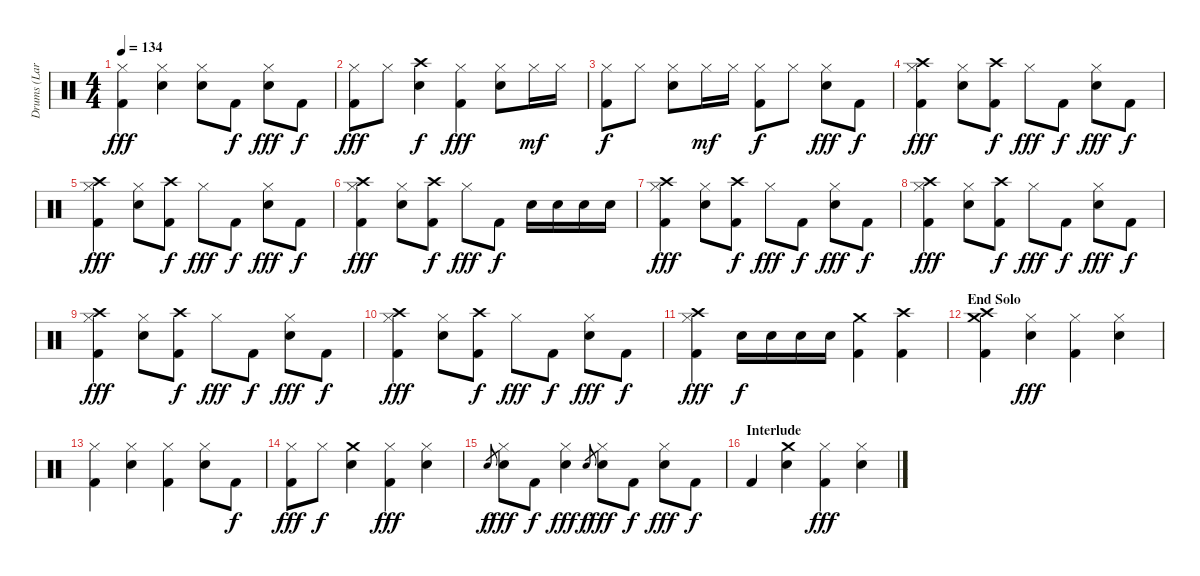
\track ("Drums (Lars)" "Drums (Lar") {instrument percussion}
\staff {score}
\articulation defaults
\ts (4 4)
\tempo 134
\clef neutral
\ks c
("Hi-Hat (closed)" "Kick (hit) 2").4{dy fff} ("Hi-Hat (closed)" "Snare (hit) 2").4 ("Hi-Hat (closed)" "Snare (hit) 2").8 "Kick (hit) 2".8{dy f} ("Hi-Hat (closed)" "Snare (hit) 2").8{dy fff} "Kick (hit) 2".8{dy f} |
("Hi-Hat (closed)" "Kick (hit) 2").8{dy fff} "Hi-Hat (closed)".8 ("Crash high (hit)" "Snare (hit) 2").4{dy f} ("Hi-Hat (closed)" "Kick (hit) 2").4{dy fff} ("Hi-Hat (closed)" "Snare (hit) 2").8 "Hi-Hat (closed)".16{dy mf} "Hi-Hat (closed)".16 |
("Hi-Hat (closed)" "Kick (hit) 2").8{dy f} "Hi-Hat (closed)".8 ("Hi-Hat (closed)" "Snare (hit) 2").8 "Hi-Hat (closed)".16{dy mf} "Hi-Hat (closed)".16 ("Hi-Hat (closed)" "Kick (hit) 2").8{dy f} "Hi-Hat (closed)".8 ("Hi-Hat (closed)" "Snare (hit) 2").8{dy fff} "Kick (hit) 2".8{dy f} |
("Crash high (hit)" "Hi-Hat (closed)" "Kick (hit) 2").4{dy fff} ("Hi-Hat (closed)" "Snare (hit) 2").8 ("Crash high (hit)" "Kick (hit) 2").8{dy f} "Hi-Hat (closed)".8{dy fff} "Kick (hit) 2".8{dy f} ("Hi-Hat (closed)" "Snare (hit) 2").8{dy fff} "Kick (hit) 2".8{dy f} |
("Crash high (hit)" "Hi-Hat (closed)" "Kick (hit) 2").4{dy fff} ("Hi-Hat (closed)" "Snare (hit) 2").8 ("Crash high (hit)" "Kick (hit) 2").8{dy f} "Hi-Hat (closed)".8{dy fff} "Kick (hit) 2".8{dy f} ("Hi-Hat (closed)" "Snare (hit) 2").8{dy fff} "Kick (hit) 2".8{dy f} |
("Crash high (hit)" "Hi-Hat (closed)" "Kick (hit) 2").4{dy fff} ("Hi-Hat (closed)" "Snare (hit) 2").8 ("Crash high (hit)" "Kick (hit) 2").8{dy f} "Hi-Hat (closed)".8{dy fff} "Kick (hit) 2".8{dy f} "Snare (hit) 2".16 "Snare (hit) 2".16 "Snare (hit) 2".16 "Snare (hit) 2".16 |
("Crash high (hit)" "Hi-Hat (closed)" "Kick (hit) 2").4{dy fff} ("Hi-Hat (closed)" "Snare (hit) 2").8 ("Crash high (hit)" "Kick (hit) 2").8{dy f} "Hi-Hat (closed)".8{dy fff} "Kick (hit) 2".8{dy f} ("Hi-Hat (closed)" "Snare (hit) 2").8{dy fff} "Kick (hit) 2".8{dy f} |
("Crash high (hit)" "Hi-Hat (closed)" "Kick (hit) 2").4{dy fff} ("Hi-Hat (closed)" "Snare (hit) 2").8 ("Crash high (hit)" "Kick (hit) 2").8{dy f} "Hi-Hat (closed)".8{dy fff} "Kick (hit) 2".8{dy f} ("Hi-Hat (closed)" "Snare (hit) 2").8{dy fff} "Kick (hit) 2".8{dy f} |
("Crash high (hit)" "Hi-Hat (closed)" "Kick (hit) 2").4{dy fff} ("Hi-Hat (closed)" "Snare (hit) 2").8 ("Crash high (hit)" "Kick (hit) 2").8{dy f} "Hi-Hat (closed)".8{dy fff} "Kick (hit) 2".8{dy f} ("Hi-Hat (closed)" "Snare (hit) 2").8{dy fff} "Kick (hit) 2".8{dy f} |
("Crash high (hit)" "Hi-Hat (closed)" "Kick (hit) 2").4{dy fff} ("Hi-Hat (closed)" "Snare (hit) 2").8 ("Crash high (hit)" "Kick (hit) 2").8{dy f} "Hi-Hat (closed)".8{dy fff} "Kick (hit) 2".8{dy f} ("Hi-Hat (closed)" "Snare (hit) 2").8{dy fff} "Kick (hit) 2".8{dy f} |
("Crash high (hit)" "Hi-Hat (closed)" "Kick (hit) 2").4{dy fff} "Snare (hit) 2".16{dy f} "Snare (hit) 2".16 "Snare (hit) 2".16 "Snare (hit) 2".16 ("Crash medium (hit)" "Kick (hit) 2").4 ("Crash high (hit)" "Kick (hit) 2").4 |
\section ("" "End Solo")
("Crash high (hit)" "Crash medium (hit)" "Kick (hit) 2").4 ("Hi-Hat (closed)" "Snare (hit) 2").4{dy fff} ("Hi-Hat (closed)" "Kick (hit) 2").4 ("Hi-Hat (closed)" "Snare (hit) 2").4 |
("Hi-Hat (closed)" "Kick (hit) 2").4 ("Hi-Hat (closed)" "Snare (hit) 2").4 ("Hi-Hat (closed)" "Kick (hit) 2").4 ("Hi-Hat (closed)" "Snare (hit) 2").8 "Kick (hit) 2".8{dy f} |
("Hi-Hat (closed)" "Kick (hit) 2").8{dy fff} "Hi-Hat (closed)".8{dy f} ("Crash medium (hit)" "Snare (hit) 2").4 ("Hi-Hat (closed)" "Kick (hit) 2").4{dy fff} ("Hi-Hat (closed)" "Snare (hit) 2").4 |
"Snare (hit) 2".8{gr dy f} ("Hi-Hat (closed)" "Snare (hit) 2").8{dy fff} "Kick (hit) 2".8{dy f} ("Hi-Hat (closed)" "Snare (hit) 2").4{dy fff} "Snare (hit) 2".8{gr dy f} ("Hi-Hat (closed)" "Snare (hit) 2").8{dy fff} "Kick (hit) 2".8{dy f} ("Hi-Hat (closed)" "Snare (hit) 2").8{dy fff} "Kick (hit) 2".8{dy f} |
\section ("" "Interlude")
"Kick (hit) 2".4 ("Crash medium (hit)" "Snare (hit) 2").4 ("Hi-Hat (closed)" "Kick (hit) 2").4{dy fff} ("Hi-Hat (closed)" "Snare (hit) 2").4
